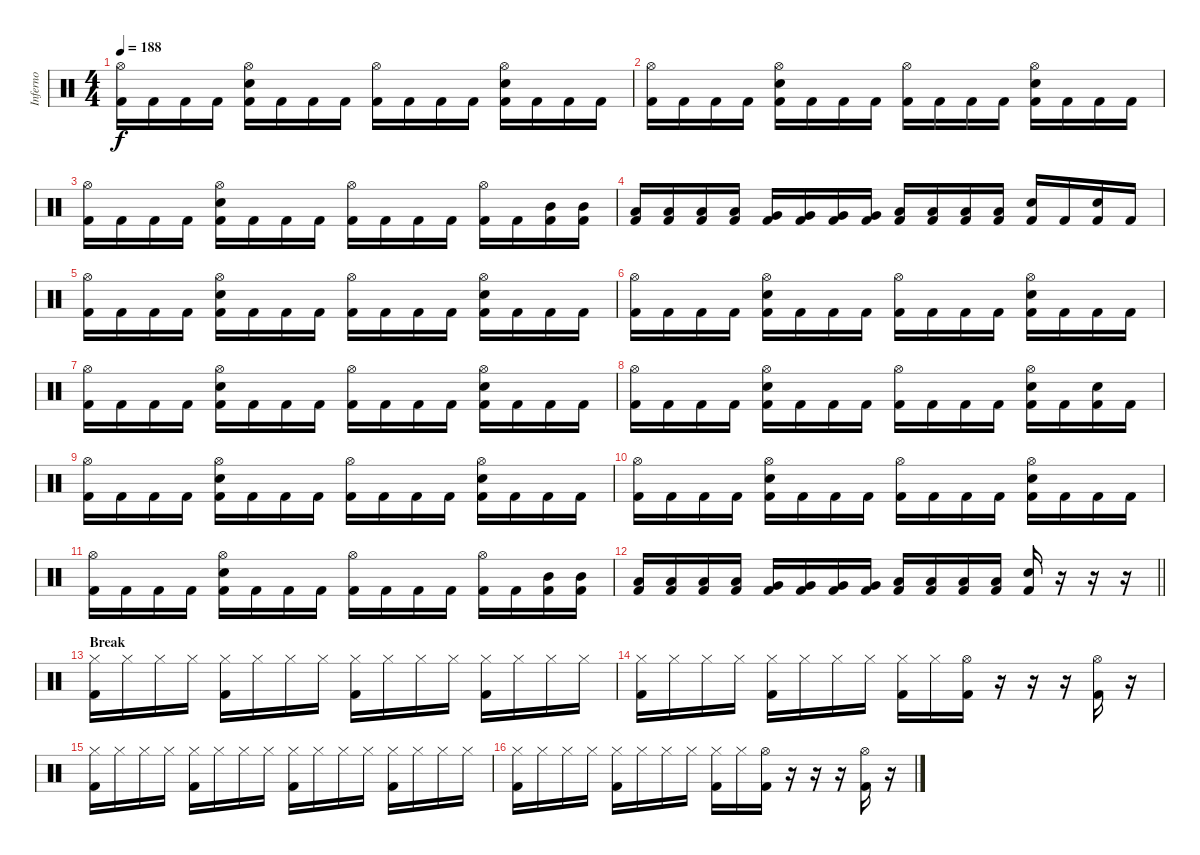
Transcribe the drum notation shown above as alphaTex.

\track ("Inferno" "Inferno") {instrument percussion}
\staff {score}
\articulation defaults
\ts (4 4)
\tempo 188
\clef neutral
\ks c
("Hi-Hat (open)" "Kick (hit) 2").16{dy f} "Kick (hit) 2".16 "Kick (hit) 2".16 "Kick (hit) 2".16 ("Hi-Hat (open)" "Snare (hit) 2" "Kick (hit) 2").16 "Kick (hit) 2".16 "Kick (hit) 2".16 "Kick (hit) 2".16 ("Hi-Hat (open)" "Kick (hit) 2").16 "Kick (hit) 2".16 "Kick (hit) 2".16 "Kick (hit) 2".16 ("Hi-Hat (open)" "Snare (hit) 2" "Kick (hit) 2").16 "Kick (hit) 2".16 "Kick (hit) 2".16 "Kick (hit) 2".16 |
("Hi-Hat (open)" "Kick (hit) 2").16 "Kick (hit) 2".16 "Kick (hit) 2".16 "Kick (hit) 2".16 ("Hi-Hat (open)" "Snare (hit) 2" "Kick (hit) 2").16 "Kick (hit) 2".16 "Kick (hit) 2".16 "Kick (hit) 2".16 ("Hi-Hat (open)" "Kick (hit) 2").16 "Kick (hit) 2".16 "Kick (hit) 2".16 "Kick (hit) 2".16 ("Hi-Hat (open)" "Snare (hit) 2" "Kick (hit) 2").16 "Kick (hit) 2".16 "Kick (hit) 2".16 "Kick (hit) 2".16 |
("Hi-Hat (open)" "Kick (hit) 2").16 "Kick (hit) 2".16 "Kick (hit) 2".16 "Kick (hit) 2".16 ("Hi-Hat (open)" "Snare (hit) 2" "Kick (hit) 2").16 "Kick (hit) 2".16 "Kick (hit) 2".16 "Kick (hit) 2".16 ("Hi-Hat (open)" "Kick (hit) 2").16 "Kick (hit) 2".16 "Kick (hit) 2".16 "Kick (hit) 2".16 ("Hi-Hat (open)" "Kick (hit) 2").16 "Kick (hit) 2".16 ("Mid Tom (hit)" "Kick (hit) 2").16 ("Mid Tom (hit)" "Kick (hit) 2").16 |
("Low Tom (hit)" "Kick (hit) 2").16 ("Low Tom (hit)" "Kick (hit) 2").16 ("Low Tom (hit)" "Kick (hit) 2").16 ("Low Tom (hit)" "Kick (hit) 2").16 ("Very Low Tom (hit)" "Kick (hit) 2").16 ("Very Low Tom (hit)" "Kick (hit) 2").16 ("Very Low Tom (hit)" "Kick (hit) 2").16 ("Very Low Tom (hit)" "Kick (hit) 2").16 ("Low Floor Tom (hit)" "Kick (hit) 2").16 ("Low Floor Tom (hit)" "Kick (hit) 2").16 ("Low Floor Tom (hit)" "Kick (hit) 2").16 ("Low Floor Tom (hit)" "Kick (hit) 2").16 ("Snare (hit) 2" "Kick (hit) 2").16 "Kick (hit) 2".16 ("Snare (hit) 2" "Kick (hit) 2").16 "Kick (hit) 2".16 |
("Hi-Hat (open)" "Kick (hit) 2").16 "Kick (hit) 2".16 "Kick (hit) 2".16 "Kick (hit) 2".16 ("Hi-Hat (open)" "Snare (hit) 2" "Kick (hit) 2").16 "Kick (hit) 2".16 "Kick (hit) 2".16 "Kick (hit) 2".16 ("Hi-Hat (open)" "Kick (hit) 2").16 "Kick (hit) 2".16 "Kick (hit) 2".16 "Kick (hit) 2".16 ("Hi-Hat (open)" "Snare (hit) 2" "Kick (hit) 2").16 "Kick (hit) 2".16 "Kick (hit) 2".16 "Kick (hit) 2".16 |
("Hi-Hat (open)" "Kick (hit) 2").16 "Kick (hit) 2".16 "Kick (hit) 2".16 "Kick (hit) 2".16 ("Hi-Hat (open)" "Snare (hit) 2" "Kick (hit) 2").16 "Kick (hit) 2".16 "Kick (hit) 2".16 "Kick (hit) 2".16 ("Hi-Hat (open)" "Kick (hit) 2").16 "Kick (hit) 2".16 "Kick (hit) 2".16 "Kick (hit) 2".16 ("Hi-Hat (open)" "Snare (hit) 2" "Kick (hit) 2").16 "Kick (hit) 2".16 "Kick (hit) 2".16 "Kick (hit) 2".16 |
("Hi-Hat (open)" "Kick (hit) 2").16 "Kick (hit) 2".16 "Kick (hit) 2".16 "Kick (hit) 2".16 ("Hi-Hat (open)" "Snare (hit) 2" "Kick (hit) 2").16 "Kick (hit) 2".16 "Kick (hit) 2".16 "Kick (hit) 2".16 ("Hi-Hat (open)" "Kick (hit) 2").16 "Kick (hit) 2".16 "Kick (hit) 2".16 "Kick (hit) 2".16 ("Hi-Hat (open)" "Snare (hit) 2" "Kick (hit) 2").16 "Kick (hit) 2".16 "Kick (hit) 2".16 "Kick (hit) 2".16 |
("Hi-Hat (open)" "Kick (hit) 2").16 "Kick (hit) 2".16 "Kick (hit) 2".16 "Kick (hit) 2".16 ("Hi-Hat (open)" "Snare (hit) 2" "Kick (hit) 2").16 "Kick (hit) 2".16 "Kick (hit) 2".16 "Kick (hit) 2".16 ("Hi-Hat (open)" "Kick (hit) 2").16 "Kick (hit) 2".16 "Kick (hit) 2".16 "Kick (hit) 2".16 ("Hi-Hat (open)" "Snare (hit) 2" "Kick (hit) 2").16 "Kick (hit) 2".16 ("Snare (hit) 2" "Kick (hit) 2").16 "Kick (hit) 2".16 |
("Hi-Hat (open)" "Kick (hit) 2").16 "Kick (hit) 2".16 "Kick (hit) 2".16 "Kick (hit) 2".16 ("Hi-Hat (open)" "Snare (hit) 2" "Kick (hit) 2").16 "Kick (hit) 2".16 "Kick (hit) 2".16 "Kick (hit) 2".16 ("Hi-Hat (open)" "Kick (hit) 2").16 "Kick (hit) 2".16 "Kick (hit) 2".16 "Kick (hit) 2".16 ("Hi-Hat (open)" "Snare (hit) 2" "Kick (hit) 2").16 "Kick (hit) 2".16 "Kick (hit) 2".16 "Kick (hit) 2".16 |
("Hi-Hat (open)" "Kick (hit) 2").16 "Kick (hit) 2".16 "Kick (hit) 2".16 "Kick (hit) 2".16 ("Hi-Hat (open)" "Snare (hit) 2" "Kick (hit) 2").16 "Kick (hit) 2".16 "Kick (hit) 2".16 "Kick (hit) 2".16 ("Hi-Hat (open)" "Kick (hit) 2").16 "Kick (hit) 2".16 "Kick (hit) 2".16 "Kick (hit) 2".16 ("Hi-Hat (open)" "Snare (hit) 2" "Kick (hit) 2").16 "Kick (hit) 2".16 "Kick (hit) 2".16 "Kick (hit) 2".16 |
("Hi-Hat (open)" "Kick (hit) 2").16 "Kick (hit) 2".16 "Kick (hit) 2".16 "Kick (hit) 2".16 ("Hi-Hat (open)" "Snare (hit) 2" "Kick (hit) 2").16 "Kick (hit) 2".16 "Kick (hit) 2".16 "Kick (hit) 2".16 ("Hi-Hat (open)" "Kick (hit) 2").16 "Kick (hit) 2".16 "Kick (hit) 2".16 "Kick (hit) 2".16 ("Hi-Hat (open)" "Kick (hit) 2").16 "Kick (hit) 2".16 ("Mid Tom (hit)" "Kick (hit) 2").16 ("Mid Tom (hit)" "Kick (hit) 2").16 |
\barLineRight lightlight
("Low Tom (hit)" "Kick (hit) 2").16 ("Low Tom (hit)" "Kick (hit) 2").16 ("Low Tom (hit)" "Kick (hit) 2").16 ("Low Tom (hit)" "Kick (hit) 2").16 ("Very Low Tom (hit)" "Kick (hit) 2").16 ("Very Low Tom (hit)" "Kick (hit) 2").16 ("Very Low Tom (hit)" "Kick (hit) 2").16 ("Very Low Tom (hit)" "Kick (hit) 2").16 ("Low Floor Tom (hit)" "Kick (hit) 2").16 ("Low Floor Tom (hit)" "Kick (hit) 2").16 ("Low Floor Tom (hit)" "Kick (hit) 2").16 ("Low Floor Tom (hit)" "Kick (hit) 2").16 ("Snare (hit) 2" "Kick (hit) 2").16 r.16 r.16 r.16 |
\section ("" "Break")
("Hi-Hat (closed)" "Kick (hit) 2").16 "Hi-Hat (closed)".16 "Hi-Hat (closed)".16 "Hi-Hat (closed)".16 ("Hi-Hat (closed)" "Kick (hit) 2").16 "Hi-Hat (closed)".16 "Hi-Hat (closed)".16 "Hi-Hat (closed)".16 ("Hi-Hat (closed)" "Kick (hit) 2").16 "Hi-Hat (closed)".16 "Hi-Hat (closed)".16 "Hi-Hat (closed)".16 ("Hi-Hat (closed)" "Kick (hit) 2").16 "Hi-Hat (closed)".16 "Hi-Hat (closed)".16 "Hi-Hat (closed)".16 |
("Hi-Hat (closed)" "Kick (hit) 2").16 "Hi-Hat (closed)".16 "Hi-Hat (closed)".16 "Hi-Hat (closed)".16 ("Hi-Hat (closed)" "Kick (hit) 2").16 "Hi-Hat (closed)".16 "Hi-Hat (closed)".16 "Hi-Hat (closed)".16 ("Hi-Hat (closed)" "Kick (hit) 2").16 "Hi-Hat (closed)".16 ("Hi-Hat (open)" "Kick (hit) 2").16 r.16 r.16 r.16 ("Hi-Hat (open)" "Kick (hit) 2").16 r.16 |
("Hi-Hat (closed)" "Kick (hit) 2").16 "Hi-Hat (closed)".16 "Hi-Hat (closed)".16 "Hi-Hat (closed)".16 ("Hi-Hat (closed)" "Kick (hit) 2").16 "Hi-Hat (closed)".16 "Hi-Hat (closed)".16 "Hi-Hat (closed)".16 ("Hi-Hat (closed)" "Kick (hit) 2").16 "Hi-Hat (closed)".16 "Hi-Hat (closed)".16 "Hi-Hat (closed)".16 ("Hi-Hat (closed)" "Kick (hit) 2").16 "Hi-Hat (closed)".16 "Hi-Hat (closed)".16 "Hi-Hat (closed)".16 |
("Hi-Hat (closed)" "Kick (hit) 2").16 "Hi-Hat (closed)".16 "Hi-Hat (closed)".16 "Hi-Hat (closed)".16 ("Hi-Hat (closed)" "Kick (hit) 2").16 "Hi-Hat (closed)".16 "Hi-Hat (closed)".16 "Hi-Hat (closed)".16 ("Hi-Hat (closed)" "Kick (hit) 2").16 "Hi-Hat (closed)".16 ("Hi-Hat (open)" "Kick (hit) 2").16 r.16 r.16 r.16 ("Hi-Hat (open)" "Kick (hit) 2").16 r.16
